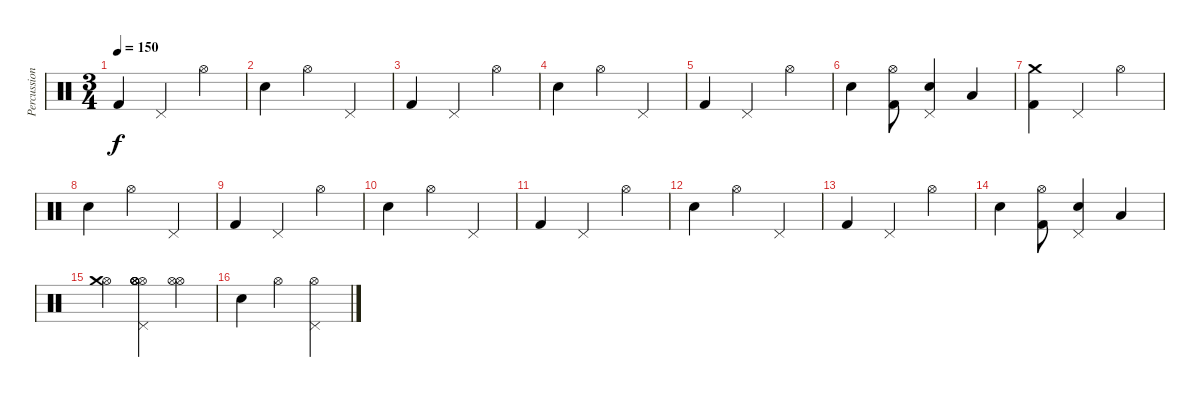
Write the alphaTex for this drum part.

\track ("Percussion" "Percussion") {instrument percussion}
\staff {score}
\articulation defaults
\ts (3 4)
\tempo 150
\clef neutral
\ks c "Kick (hit) 2".4{dy f} "Pedal Hi-Hat (hit)".4 "Hi-Hat (open)".4
|
"Snare (hit) 2".4 "Hi-Hat (open)".4 "Pedal Hi-Hat (hit)".4 |
"Kick (hit) 2".4 "Pedal Hi-Hat (hit)".4 "Hi-Hat (open)".4 |
"Snare (hit) 2".4 "Hi-Hat (open)".4 "Pedal Hi-Hat (hit)".4 |
"Kick (hit) 2".4 "Pedal Hi-Hat (hit)".4 "Hi-Hat (open)".4 |
"Snare (hit) 2".4 ("Kick (hit) 2" "Hi-Hat (open)").8 ("Snare (hit) 2" "Pedal Hi-Hat (hit)").4 "Low Tom (hit)".4 |
("Kick (hit) 2" "Crash medium (hit)").4 "Pedal Hi-Hat (hit)".4 "Hi-Hat (open)".4 |
"Snare (hit) 2".4 "Hi-Hat (open)".4 "Pedal Hi-Hat (hit)".4 |
"Kick (hit) 2".4 "Pedal Hi-Hat (hit)".4 "Hi-Hat (open)".4 |
"Snare (hit) 2".4 "Hi-Hat (open)".4 "Pedal Hi-Hat (hit)".4 |
"Kick (hit) 2".4 "Pedal Hi-Hat (hit)".4 "Hi-Hat (open)".4 |
"Snare (hit) 2".4 "Hi-Hat (open)".4 "Pedal Hi-Hat (hit)".4 |
"Kick (hit) 2".4 "Pedal Hi-Hat (hit)".4 "Hi-Hat (open)".4 |
"Snare (hit) 2".4 ("Kick (hit) 2" "Hi-Hat (open)").8 ("Snare (hit) 2" "Pedal Hi-Hat (hit)").4 "Low Tom (hit)".4 |
("Hi-Hat (open)" "Crash medium (hit)").4 ("Pedal Hi-Hat (hit)" "Hi-Hat (open)" "Hi-Hat (open)" "Hi-Hat (open)" "Hi-Hat (open)" "Hi-Hat (open)").4 ("Hi-Hat (open)" "Hi-Hat (open)").4 |
"Snare (hit) 2".4 "Hi-Hat (open)".4 ("Pedal Hi-Hat (hit)" "Hi-Hat (open)").4
